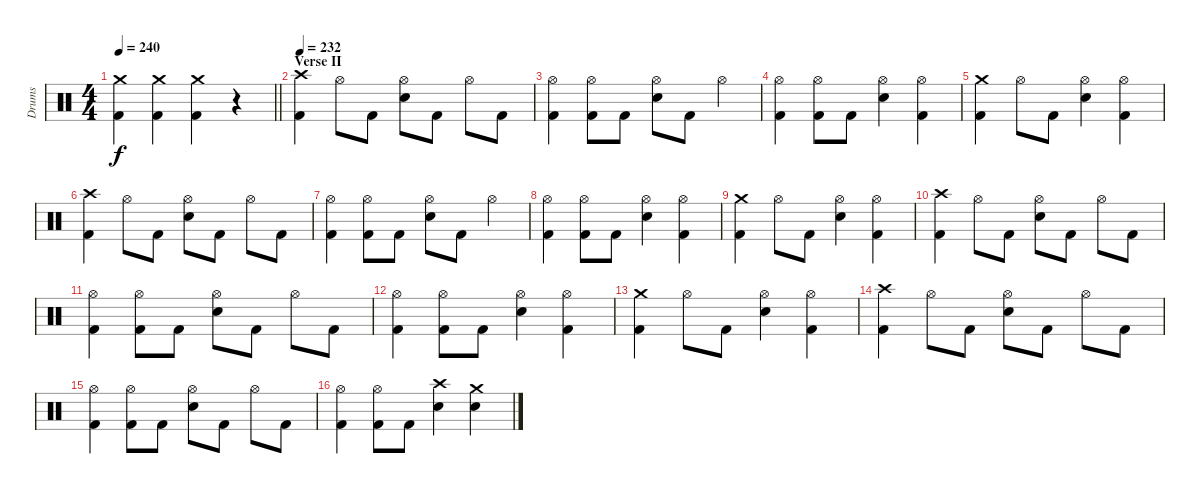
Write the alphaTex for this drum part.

\track ("Drums" "Drums") {instrument percussion}
\staff {score}
\articulation defaults
\ts (4 4)
\tempo 240
\clef neutral
\barLineRight lightlight
\ks c
("Crash medium (hit)" "Kick (hit) 2").4{dy f} ("Crash medium (hit)" "Kick (hit) 2").4 ("Crash medium (hit)" "Kick (hit) 2").4 r.4 |
\section ("" "Verse II")
\tempo 232
("Crash high (hit)" "Kick (hit) 2").4 "Hi-Hat (open)".8 "Kick (hit) 2".8 ("Hi-Hat (open)" "Snare (hit) 2").8 "Kick (hit) 2".8 "Hi-Hat (open)".8 "Kick (hit) 2".8 |
("Hi-Hat (open)" "Kick (hit) 2").4 ("Hi-Hat (open)" "Kick (hit) 2").8 "Kick (hit) 2".8 ("Hi-Hat (open)" "Snare (hit) 2").8 "Kick (hit) 2".8 "Hi-Hat (open)".4 |
("Hi-Hat (open)" "Kick (hit) 2").4 ("Hi-Hat (open)" "Kick (hit) 2").8 "Kick (hit) 2".8 ("Hi-Hat (open)" "Snare (hit) 2").4 ("Hi-Hat (open)" "Kick (hit) 2").4 |
("Crash medium (hit)" "Kick (hit) 2").4 "Hi-Hat (open)".8 "Kick (hit) 2".8 ("Hi-Hat (open)" "Snare (hit) 2").4 ("Hi-Hat (open)" "Kick (hit) 2").4 |
("Crash high (hit)" "Kick (hit) 2").4 "Hi-Hat (open)".8 "Kick (hit) 2".8 ("Hi-Hat (open)" "Snare (hit) 2").8 "Kick (hit) 2".8 "Hi-Hat (open)".8 "Kick (hit) 2".8 |
("Hi-Hat (open)" "Kick (hit) 2").4 ("Hi-Hat (open)" "Kick (hit) 2").8 "Kick (hit) 2".8 ("Hi-Hat (open)" "Snare (hit) 2").8 "Kick (hit) 2".8 "Hi-Hat (open)".4 |
("Hi-Hat (open)" "Kick (hit) 2").4 ("Hi-Hat (open)" "Kick (hit) 2").8 "Kick (hit) 2".8 ("Hi-Hat (open)" "Snare (hit) 2").4 ("Hi-Hat (open)" "Kick (hit) 2").4 |
("Crash medium (hit)" "Kick (hit) 2").4 "Hi-Hat (open)".8 "Kick (hit) 2".8 ("Hi-Hat (open)" "Snare (hit) 2").4 ("Hi-Hat (open)" "Kick (hit) 2").4 |
("Crash high (hit)" "Kick (hit) 2").4 "Hi-Hat (open)".8 "Kick (hit) 2".8 ("Hi-Hat (open)" "Snare (hit) 2").8 "Kick (hit) 2".8 "Hi-Hat (open)".8 "Kick (hit) 2".8 |
("Hi-Hat (open)" "Kick (hit) 2").4 ("Hi-Hat (open)" "Kick (hit) 2").8 "Kick (hit) 2".8 ("Hi-Hat (open)" "Snare (hit) 2").8 "Kick (hit) 2".8 "Hi-Hat (open)".8 "Kick (hit) 2".8 |
("Hi-Hat (open)" "Kick (hit) 2").4 ("Hi-Hat (open)" "Kick (hit) 2").8 "Kick (hit) 2".8 ("Hi-Hat (open)" "Snare (hit) 2").4 ("Hi-Hat (open)" "Kick (hit) 2").4 |
("Crash medium (hit)" "Kick (hit) 2").4 "Hi-Hat (open)".8 "Kick (hit) 2".8 ("Hi-Hat (open)" "Snare (hit) 2").4 ("Hi-Hat (open)" "Kick (hit) 2").4 |
("Crash high (hit)" "Kick (hit) 2").4 "Hi-Hat (open)".8 "Kick (hit) 2".8 ("Hi-Hat (open)" "Snare (hit) 2").8 "Kick (hit) 2".8 "Hi-Hat (open)".8 "Kick (hit) 2".8 |
("Hi-Hat (open)" "Kick (hit) 2").4 ("Hi-Hat (open)" "Kick (hit) 2").8 "Kick (hit) 2".8 ("Hi-Hat (open)" "Snare (hit) 2").8 "Kick (hit) 2".8 "Hi-Hat (open)".8 "Kick (hit) 2".8 |
("Hi-Hat (open)" "Kick (hit) 2").4 ("Hi-Hat (open)" "Kick (hit) 2").8 "Kick (hit) 2".8 ("Crash high (hit)" "Snare (hit) 2").4 ("Crash medium (hit)" "Snare (hit) 2").4
